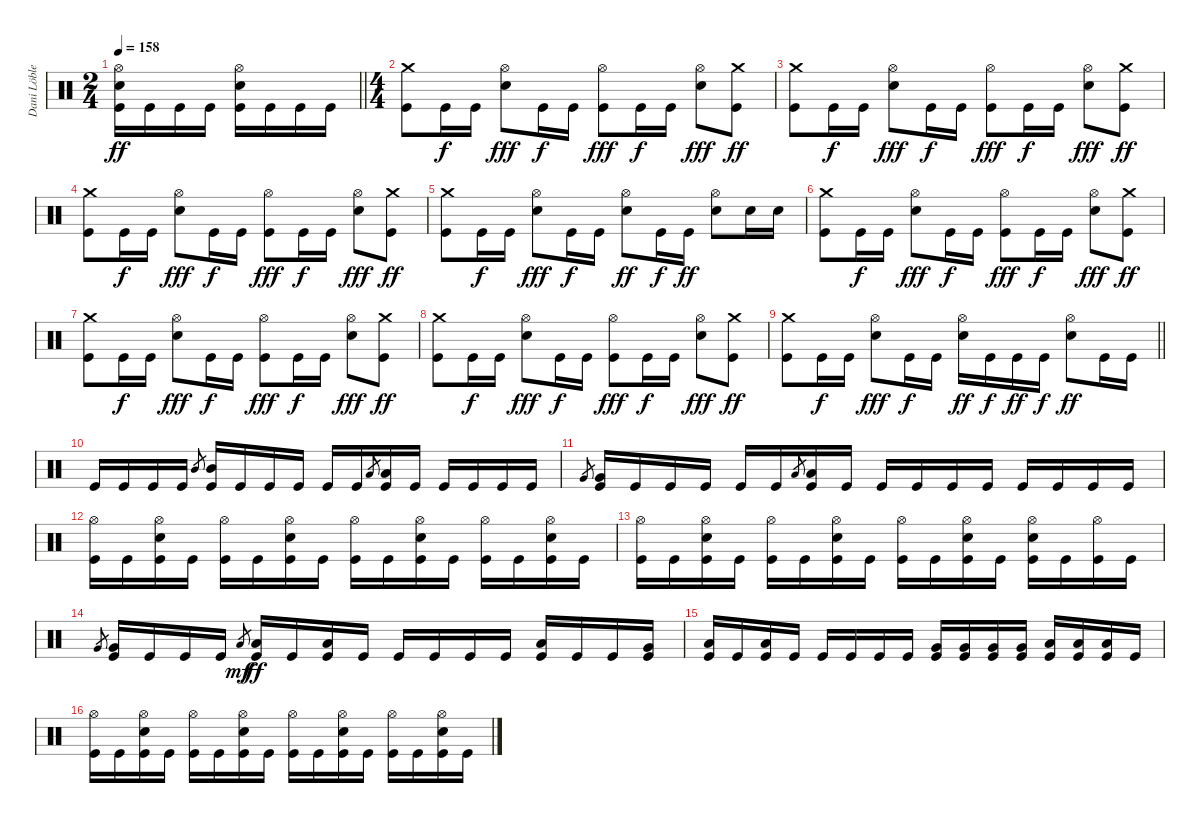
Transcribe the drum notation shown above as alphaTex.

\track ("Dani Löble" "Dani Löble") {instrument percussion}
\staff {score}
\articulation defaults
\ts (2 4)
\tempo 158
\clef neutral
\barLineRight lightlight
\ks c
("Hi-Hat (open)" "Electric Snare (hit)" "Kick (hit)").16{dy ff} "Kick (hit)".16 "Kick (hit)".16 "Kick (hit)".16 ("Hi-Hat (open)" "Electric Snare (hit)" "Kick (hit)").16 "Kick (hit)".16 "Kick (hit)".16 "Kick (hit)".16 |
\ts (4 4)
\section ("" "")
("Crash medium (hit)" "Kick (hit)").8 "Kick (hit)".16{dy f} "Kick (hit)".16 ("Hi-Hat (open)" "Electric Snare (hit)").8{dy fff} "Kick (hit)".16{dy f} "Kick (hit)".16 ("Hi-Hat (open)" "Kick (hit)").8{dy fff} "Kick (hit)".16{dy f} "Kick (hit)".16 ("Hi-Hat (open)" "Electric Snare (hit)").8{dy fff} ("Crash medium (hit)" "Kick (hit)").8{dy ff} |
("Crash medium (hit)" "Kick (hit)").8 "Kick (hit)".16{dy f} "Kick (hit)".16 ("Hi-Hat (open)" "Electric Snare (hit)").8{dy fff} "Kick (hit)".16{dy f} "Kick (hit)".16 ("Hi-Hat (open)" "Kick (hit)").8{dy fff} "Kick (hit)".16{dy f} "Kick (hit)".16 ("Hi-Hat (open)" "Electric Snare (hit)").8{dy fff} ("Crash medium (hit)" "Kick (hit)").8{dy ff} |
("Crash medium (hit)" "Kick (hit)").8 "Kick (hit)".16{dy f} "Kick (hit)".16 ("Hi-Hat (open)" "Electric Snare (hit)").8{dy fff} "Kick (hit)".16{dy f} "Kick (hit)".16 ("Hi-Hat (open)" "Kick (hit)").8{dy fff} "Kick (hit)".16{dy f} "Kick (hit)".16 ("Hi-Hat (open)" "Electric Snare (hit)").8{dy fff} ("Crash medium (hit)" "Kick (hit)").8{dy ff} |
("Crash medium (hit)" "Kick (hit)").8 "Kick (hit)".16{dy f} "Kick (hit)".16 ("Hi-Hat (open)" "Electric Snare (hit)").8{dy fff} "Kick (hit)".16{dy f} "Kick (hit)".16 ("Hi-Hat (open)" "Electric Snare (hit)").8{dy ff} "Kick (hit)".16{dy f} "Kick (hit)".16{dy ff} ("Hi-Hat (open)" "Electric Snare (hit)").8 "Electric Snare (hit)".16 "Electric Snare (hit)".16 |
("Crash medium (hit)" "Kick (hit)").8 "Kick (hit)".16{dy f} "Kick (hit)".16 ("Hi-Hat (open)" "Electric Snare (hit)").8{dy fff} "Kick (hit)".16{dy f} "Kick (hit)".16 ("Hi-Hat (open)" "Kick (hit)").8{dy fff} "Kick (hit)".16{dy f} "Kick (hit)".16 ("Hi-Hat (open)" "Electric Snare (hit)").8{dy fff} ("Crash medium (hit)" "Kick (hit)").8{dy ff} |
("Crash medium (hit)" "Kick (hit)").8 "Kick (hit)".16{dy f} "Kick (hit)".16 ("Hi-Hat (open)" "Electric Snare (hit)").8{dy fff} "Kick (hit)".16{dy f} "Kick (hit)".16 ("Hi-Hat (open)" "Kick (hit)").8{dy fff} "Kick (hit)".16{dy f} "Kick (hit)".16 ("Hi-Hat (open)" "Electric Snare (hit)").8{dy fff} ("Crash medium (hit)" "Kick (hit)").8{dy ff} |
("Crash medium (hit)" "Kick (hit)").8 "Kick (hit)".16{dy f} "Kick (hit)".16 ("Hi-Hat (open)" "Electric Snare (hit)").8{dy fff} "Kick (hit)".16{dy f} "Kick (hit)".16 ("Hi-Hat (open)" "Kick (hit)").8{dy fff} "Kick (hit)".16{dy f} "Kick (hit)".16 ("Hi-Hat (open)" "Electric Snare (hit)").8{dy fff} ("Crash medium (hit)" "Kick (hit)").8{dy ff} |
\barLineRight lightlight
("Crash medium (hit)" "Kick (hit)").8 "Kick (hit)".16{dy f} "Kick (hit)".16 ("Hi-Hat (open)" "Electric Snare (hit)").8{dy fff} "Kick (hit)".16{dy f} "Kick (hit)".16 ("Hi-Hat (open)" "Electric Snare (hit)").16{dy ff} "Kick (hit)".16{dy f} "Kick (hit)".16{dy ff} "Kick (hit)".16{dy f} ("Hi-Hat (open)" "Electric Snare (hit)").8{dy ff} "Kick (hit)".16 "Kick (hit)".16 |
\section ("" "")
"Kick (hit)".16 "Kick (hit)".16 "Kick (hit)".16 "Kick (hit)".16 "Mid Tom (hit)".8{gr} ("Mid Tom (hit)" "Kick (hit)").16 "Kick (hit)".16 "Kick (hit)".16 "Kick (hit)".16 "Kick (hit)".16 "Kick (hit)".16 "Low Tom (hit)".8{gr} ("Low Tom (hit)" "Kick (hit)").16 "Kick (hit)".16 "Kick (hit)".16 "Kick (hit)".16 "Kick (hit)".16 "Kick (hit)".16 |
"Very Low Tom (hit)".8{gr} ("Very Low Tom (hit)" "Kick (hit)").16 "Kick (hit)".16 "Kick (hit)".16 "Kick (hit)".16 "Kick (hit)".16 "Kick (hit)".16 "Low Floor Tom (hit)".8{gr} ("Low Floor Tom (hit)" "Kick (hit)").16 "Kick (hit)".16 "Kick (hit)".16 "Kick (hit)".16 "Kick (hit)".16 "Kick (hit)".16 "Kick (hit)".16 "Kick (hit)".16 "Kick (hit)".16 "Kick (hit)".16 |
("Hi-Hat (open)" "Kick (hit)").16 "Kick (hit)".16 ("Hi-Hat (open)" "Electric Snare (hit)" "Kick (hit)").16 "Kick (hit)".16 ("Hi-Hat (open)" "Kick (hit)").16 "Kick (hit)".16 ("Hi-Hat (open)" "Electric Snare (hit)" "Kick (hit)").16 "Kick (hit)".16 ("Hi-Hat (open)" "Kick (hit)").16 "Kick (hit)".16 ("Hi-Hat (open)" "Electric Snare (hit)" "Kick (hit)").16 "Kick (hit)".16 ("Hi-Hat (open)" "Kick (hit)").16 "Kick (hit)".16 ("Hi-Hat (open)" "Electric Snare (hit)" "Kick (hit)").16 "Kick (hit)".16 |
("Hi-Hat (open)" "Kick (hit)").16 "Kick (hit)".16 ("Hi-Hat (open)" "Electric Snare (hit)" "Kick (hit)").16 "Kick (hit)".16 ("Hi-Hat (open)" "Kick (hit)").16 "Kick (hit)".16 ("Hi-Hat (open)" "Electric Snare (hit)" "Kick (hit)").16 "Kick (hit)".16 ("Hi-Hat (open)" "Kick (hit)").16 "Kick (hit)".16 ("Hi-Hat (open)" "Electric Snare (hit)" "Kick (hit)").16 "Kick (hit)".16 ("Hi-Hat (open)" "Electric Snare (hit)" "Kick (hit)").16 "Kick (hit)".16 ("Hi-Hat (open)" "Kick (hit)").16 "Kick (hit)".16 |
"Very Low Tom (hit)".8{gr} ("Very Low Tom (hit)" "Kick (hit)").16 "Kick (hit)".16 "Kick (hit)".16 "Kick (hit)".16 "Low Tom (hit)".8{gr dy mf} ("Low Tom (hit)" "Kick (hit)").16{dy ff} "Kick (hit)".16 ("Low Tom (hit)" "Kick (hit)").16 "Kick (hit)".16 "Kick (hit)".16 "Kick (hit)".16 "Kick (hit)".16 "Kick (hit)".16 ("Low Tom (hit)" "Kick (hit)").16 "Kick (hit)".16 "Kick (hit)".16 ("Very Low Tom (hit)" "Kick (hit)").16 |
("Low Tom (hit)" "Kick (hit)").16 "Kick (hit)".16 ("Low Tom (hit)" "Kick (hit)").16 "Kick (hit)".16 "Kick (hit)".16 "Kick (hit)".16 "Kick (hit)".16 "Kick (hit)".16 ("Very Low Tom (hit)" "Kick (hit)").16 ("Very Low Tom (hit)" "Kick (hit)").16 ("Very Low Tom (hit)" "Kick (hit)").16 ("Very Low Tom (hit)" "Kick (hit)").16 ("Low Floor Tom (hit)" "Kick (hit)").16 ("Low Floor Tom (hit)" "Kick (hit)").16 ("Low Floor Tom (hit)" "Kick (hit)").16 "Kick (hit)".16 |
("Hi-Hat (open)" "Kick (hit)").16 "Kick (hit)".16 ("Hi-Hat (open)" "Electric Snare (hit)" "Kick (hit)").16 "Kick (hit)".16 ("Hi-Hat (open)" "Kick (hit)").16 "Kick (hit)".16 ("Hi-Hat (open)" "Electric Snare (hit)" "Kick (hit)").16 "Kick (hit)".16 ("Hi-Hat (open)" "Kick (hit)").16 "Kick (hit)".16 ("Hi-Hat (open)" "Electric Snare (hit)" "Kick (hit)").16 "Kick (hit)".16 ("Hi-Hat (open)" "Kick (hit)").16 "Kick (hit)".16 ("Hi-Hat (open)" "Electric Snare (hit)" "Kick (hit)").16 "Kick (hit)".16
